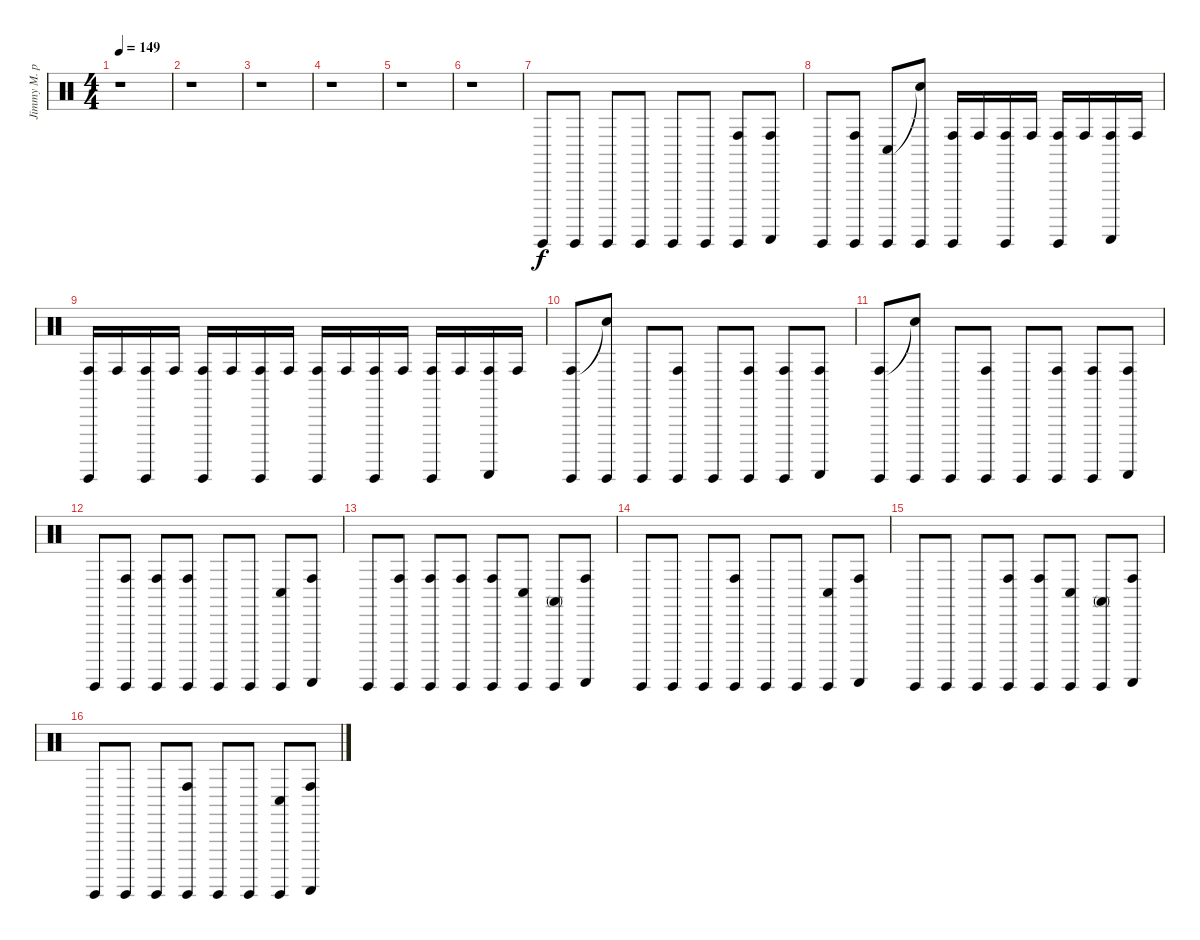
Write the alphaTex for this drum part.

\track ("Jimmy M. percussion" "Jimmy M. p") {instrument percussion}
\staff {score}
\articulation defaults
\ts (4 4)
\tempo 149
\clef neutral
\ks c
r.1{dy f} |
r.1 |
r.1 |
r.1 |
r.1 |
r.1 |
"Guiro (hit)".8 "Guiro (hit)".8 "Guiro (hit)".8 "Guiro (hit)".8 "Guiro (hit)".8 "Guiro (hit)".8 ("Guiro (hit)" "Conga high (hit)").8 ("Guiro (scrap-return)" "Conga high (hit)").8 |
"Guiro (hit)".8 ("Guiro (hit)" "Conga high (hit)").8 ("Guiro (hit)" "Conga low (hit)").8 ("Guiro (hit)" "Snare (hit)"{t}).8 ("Guiro (hit)" "Conga high (hit)").16 "Conga high (hit)".16 ("Guiro (hit)" "Conga high (hit)").16 "Conga high (hit)".16 ("Guiro (hit)" "Conga high (hit)").16 "Conga high (hit)".16 ("Guiro (scrap-return)" "Conga high (hit)").16 "Conga high (hit)".16 |
("Guiro (hit)" "Conga high (hit)").16 "Conga high (hit)".16 ("Guiro (hit)" "Conga high (hit)").16 "Conga high (hit)".16 ("Guiro (hit)" "Conga high (hit)").16 "Conga high (hit)".16 ("Guiro (hit)" "Conga high (hit)").16 "Conga high (hit)".16 ("Guiro (hit)" "Conga high (hit)").16 "Conga high (hit)".16 ("Guiro (hit)" "Conga high (hit)").16 "Conga high (hit)".16 ("Guiro (hit)" "Conga high (hit)").16 "Conga high (hit)".16 ("Guiro (scrap-return)" "Conga high (hit)").16 "Conga high (hit)".16 |
("Guiro (hit)" "Conga high (hit)").8 ("Guiro (hit)" "Snare (hit)"{t}).8 "Guiro (hit)".8 ("Guiro (hit)" "Conga high (hit)").8 "Guiro (hit)".8 ("Guiro (hit)" "Conga high (hit)").8 ("Guiro (hit)" "Conga high (hit)").8 ("Guiro (scrap-return)" "Conga high (hit)").8 |
("Guiro (hit)" "Conga high (hit)").8 ("Guiro (hit)" "Snare (hit)"{t}).8 "Guiro (hit)".8 ("Guiro (hit)" "Conga high (hit)").8 "Guiro (hit)".8 ("Guiro (hit)" "Conga high (hit)").8 ("Guiro (hit)" "Conga high (hit)").8 ("Guiro (scrap-return)" "Conga high (hit)").8 |
"Guiro (hit)".8 ("Guiro (hit)" "Conga high (hit)").8 ("Guiro (hit)" "Conga high (hit)").8 ("Guiro (hit)" "Conga high (hit)").8 "Guiro (hit)".8 "Guiro (hit)".8 ("Guiro (hit)" "Conga low (hit)").8 ("Guiro (scrap-return)" "Conga high (hit)").8 |
"Guiro (hit)".8 ("Guiro (hit)" "Conga high (hit)").8 ("Guiro (hit)" "Conga high (hit)").8 ("Guiro (hit)" "Conga high (hit)").8 ("Guiro (hit)" "Conga high (hit)").8 ("Guiro (hit)" "Conga low (hit)").8 ("Guiro (hit)" "Conga high (mute)").8 ("Guiro (scrap-return)" "Conga high (hit)").8 |
"Guiro (hit)".8 "Guiro (hit)".8 "Guiro (hit)".8 ("Guiro (hit)" "Conga high (hit)").8 "Guiro (hit)".8 "Guiro (hit)".8 ("Guiro (hit)" "Conga low (hit)").8 ("Guiro (scrap-return)" "Conga high (hit)").8 |
"Guiro (hit)".8 "Guiro (hit)".8 "Guiro (hit)".8 ("Guiro (hit)" "Conga high (hit)").8 ("Guiro (hit)" "Conga high (hit)").8 ("Guiro (hit)" "Conga low (hit)").8 ("Guiro (hit)" "Conga high (mute)").8 ("Guiro (scrap-return)" "Conga high (hit)").8 |
"Guiro (hit)".8 "Guiro (hit)".8 "Guiro (hit)".8 ("Guiro (hit)" "Conga high (hit)").8 "Guiro (hit)".8 "Guiro (hit)".8 ("Guiro (hit)" "Conga low (hit)").8 ("Guiro (scrap-return)" "Conga high (hit)").8
